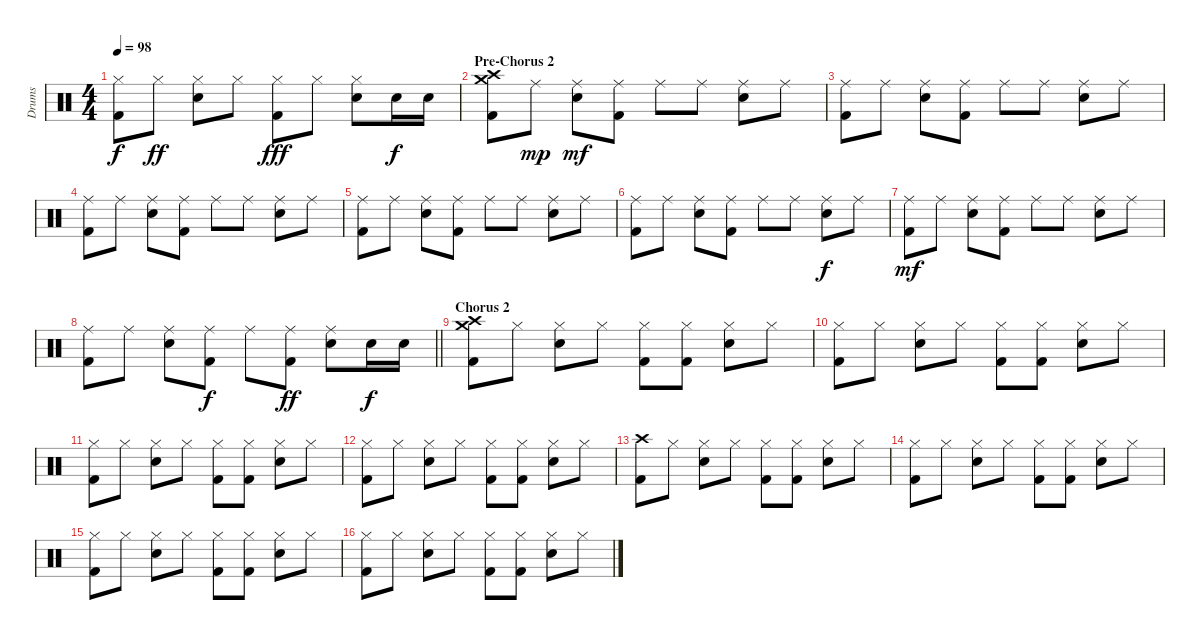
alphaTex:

\track ("Drums" "Drums") {instrument percussion}
\staff {score}
\articulation defaults
\ts (4 4)
\tempo 98
\clef neutral
\ks c
("Hi-Hat (closed)" "Kick (hit) 2").8{dy f} "Hi-Hat (closed)".8{dy ff} ("Hi-Hat (closed)" "Snare (hit) 2").8 "Hi-Hat (closed)".8 ("Hi-Hat (closed)" "Kick (hit) 2").8{dy fff} "Hi-Hat (closed)".8 ("Hi-Hat (closed)" "Snare (hit) 2").8 "Snare (hit) 2".16{dy f} "Snare (hit) 2".16 |
\section ("" "Pre-Chorus 2")
("Crash high (hit)" "Crash medium (hit)" "Kick (hit) 2").8 "Ride (middle)".8{dy mp} ("Ride (middle)" "Snare (hit) 2").8{dy mf} ("Ride (middle)" "Kick (hit) 2").8 "Ride (middle)".8 "Ride (middle)".8 ("Ride (middle)" "Snare (hit) 2").8 "Ride (middle)".8 |
("Ride (middle)" "Kick (hit) 2").8 "Ride (middle)".8 ("Ride (middle)" "Snare (hit) 2").8 ("Ride (middle)" "Kick (hit) 2").8 "Ride (middle)".8 "Ride (middle)".8 ("Ride (middle)" "Snare (hit) 2").8 "Ride (middle)".8 |
("Ride (middle)" "Kick (hit) 2").8 "Ride (middle)".8 ("Ride (middle)" "Snare (hit) 2").8 ("Ride (middle)" "Kick (hit) 2").8 "Ride (middle)".8 "Ride (middle)".8 ("Ride (middle)" "Snare (hit) 2").8 "Ride (middle)".8 |
("Ride (middle)" "Kick (hit) 2").8 "Ride (middle)".8 ("Ride (middle)" "Snare (hit) 2").8 ("Ride (middle)" "Kick (hit) 2").8 "Ride (middle)".8 "Ride (middle)".8 ("Ride (middle)" "Snare (hit) 2").8 "Ride (middle)".8 |
("Ride (middle)" "Kick (hit) 2").8 "Ride (middle)".8 ("Ride (middle)" "Snare (hit) 2").8 ("Ride (middle)" "Kick (hit) 2").8 "Ride (middle)".8 "Ride (middle)".8 ("Ride (middle)" "Snare (hit) 2").8{dy f} "Ride (middle)".8 |
("Ride (middle)" "Kick (hit) 2").8{dy mf} "Ride (middle)".8 ("Ride (middle)" "Snare (hit) 2").8 ("Ride (middle)" "Kick (hit) 2").8 "Ride (middle)".8 "Ride (middle)".8 ("Ride (middle)" "Snare (hit) 2").8 "Ride (middle)".8 |
\barLineRight lightlight
("Ride (middle)" "Kick (hit) 2").8 "Ride (middle)".8 ("Ride (middle)" "Snare (hit) 2").8 ("Ride (middle)" "Kick (hit) 2").8{dy f} "Ride (middle)".8 ("Ride (middle)" "Kick (hit) 2").8{dy ff} ("Ride (middle)" "Snare (hit) 2").8 "Snare (hit) 2".16{dy f} "Snare (hit) 2".16 |
\section ("" "Chorus 2")
("Crash medium (hit)" "Crash high (hit)" "Kick (hit) 2").8 "Hi-Hat (closed)".8 ("Hi-Hat (closed)" "Snare (hit) 2").8 "Hi-Hat (closed)".8 ("Hi-Hat (closed)" "Kick (hit) 2").8 ("Hi-Hat (closed)" "Kick (hit) 2").8 ("Hi-Hat (closed)" "Snare (hit) 2").8 "Hi-Hat (closed)".8 |
("Hi-Hat (closed)" "Kick (hit) 2").8 "Hi-Hat (closed)".8 ("Hi-Hat (closed)" "Snare (hit) 2").8 "Hi-Hat (closed)".8 ("Hi-Hat (closed)" "Kick (hit) 2").8 ("Hi-Hat (closed)" "Kick (hit) 2").8 ("Hi-Hat (closed)" "Snare (hit) 2").8 "Hi-Hat (closed)".8 |
("Hi-Hat (closed)" "Kick (hit) 2").8 "Hi-Hat (closed)".8 ("Hi-Hat (closed)" "Snare (hit) 2").8 "Hi-Hat (closed)".8 ("Hi-Hat (closed)" "Kick (hit) 2").8 ("Hi-Hat (closed)" "Kick (hit) 2").8 ("Hi-Hat (closed)" "Snare (hit) 2").8 "Hi-Hat (closed)".8 |
("Hi-Hat (closed)" "Kick (hit) 2").8 "Hi-Hat (closed)".8 ("Hi-Hat (closed)" "Snare (hit) 2").8 "Hi-Hat (closed)".8 ("Hi-Hat (closed)" "Kick (hit) 2").8 ("Hi-Hat (closed)" "Kick (hit) 2").8 ("Hi-Hat (closed)" "Snare (hit) 2").8 "Hi-Hat (closed)".8 |
("Crash high (hit)" "Kick (hit) 2").8 "Hi-Hat (closed)".8 ("Hi-Hat (closed)" "Snare (hit) 2").8 "Hi-Hat (closed)".8 ("Hi-Hat (closed)" "Kick (hit) 2").8 ("Hi-Hat (closed)" "Kick (hit) 2").8 ("Hi-Hat (closed)" "Snare (hit) 2").8 "Hi-Hat (closed)".8 |
("Hi-Hat (closed)" "Kick (hit) 2").8 "Hi-Hat (closed)".8 ("Hi-Hat (closed)" "Snare (hit) 2").8 "Hi-Hat (closed)".8 ("Hi-Hat (closed)" "Kick (hit) 2").8 ("Hi-Hat (closed)" "Kick (hit) 2").8 ("Hi-Hat (closed)" "Snare (hit) 2").8 "Hi-Hat (closed)".8 |
("Hi-Hat (closed)" "Kick (hit) 2").8 "Hi-Hat (closed)".8 ("Hi-Hat (closed)" "Snare (hit) 2").8 "Hi-Hat (closed)".8 ("Hi-Hat (closed)" "Kick (hit) 2").8 ("Hi-Hat (closed)" "Kick (hit) 2").8 ("Hi-Hat (closed)" "Snare (hit) 2").8 "Hi-Hat (closed)".8 |
("Hi-Hat (closed)" "Kick (hit) 2").8 "Hi-Hat (closed)".8 ("Hi-Hat (closed)" "Snare (hit) 2").8 "Hi-Hat (closed)".8 ("Hi-Hat (closed)" "Kick (hit) 2").8 ("Hi-Hat (closed)" "Kick (hit) 2").8 ("Hi-Hat (closed)" "Snare (hit) 2").8 "Hi-Hat (closed)".8
